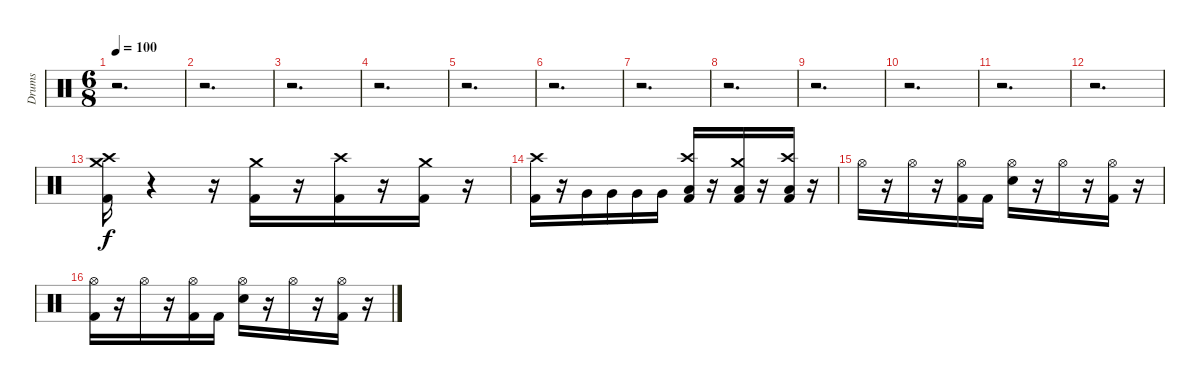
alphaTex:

\track ("Drums" "Drums") {instrument percussion}
\staff {score}
\articulation defaults
\ts (6 8)
\tempo 100
\clef neutral
\ks c
r.2{d dy f} |
r.2{d} |
r.2{d} |
r.2{d} |
r.2{d} |
r.2{d} |
r.2{d} |
r.2{d} |
r.2{d} |
r.2{d} |
r.2{d} |
r.2{d} |
("Kick (hit) 2" "Crash high (hit)" "Crash medium (hit)").16 r.4 r.16 ("Kick (hit) 2" "Crash medium (hit)").16 r.16 ("Kick (hit) 2" "Crash high (hit)").16 r.16 ("Kick (hit) 2" "Crash medium (hit)").16 r.16 |
("Kick (hit) 2" "Crash high (hit)").16 r.16 "Very Low Tom (hit)".16 "Very Low Tom (hit)".16 "Very Low Tom (hit)".16 "Very Low Tom (hit)".16 ("Kick (hit) 2" "Low Floor Tom (hit)" "Crash high (hit)").16 r.16 ("Kick (hit) 2" "Low Floor Tom (hit)" "Crash medium (hit)").16 r.16 ("Kick (hit) 2" "Low Floor Tom (hit)" "Crash high (hit)").16 r.16 |
"Hi-Hat (open)".16 r.16 "Hi-Hat (open)".16 r.16 ("Kick (hit) 2" "Hi-Hat (open)").16 "Kick (hit) 2".16 ("Snare (hit) 2" "Hi-Hat (open)").16 r.16 "Hi-Hat (open)".16 r.16 ("Kick (hit) 2" "Hi-Hat (open)").16 r.16 |
("Kick (hit) 2" "Hi-Hat (open)").16 r.16 "Hi-Hat (open)".16 r.16 ("Kick (hit) 2" "Hi-Hat (open)").16 "Kick (hit) 2".16 ("Snare (hit) 2" "Hi-Hat (open)").16 r.16 "Hi-Hat (open)".16 r.16 ("Kick (hit) 2" "Hi-Hat (open)").16 r.16
